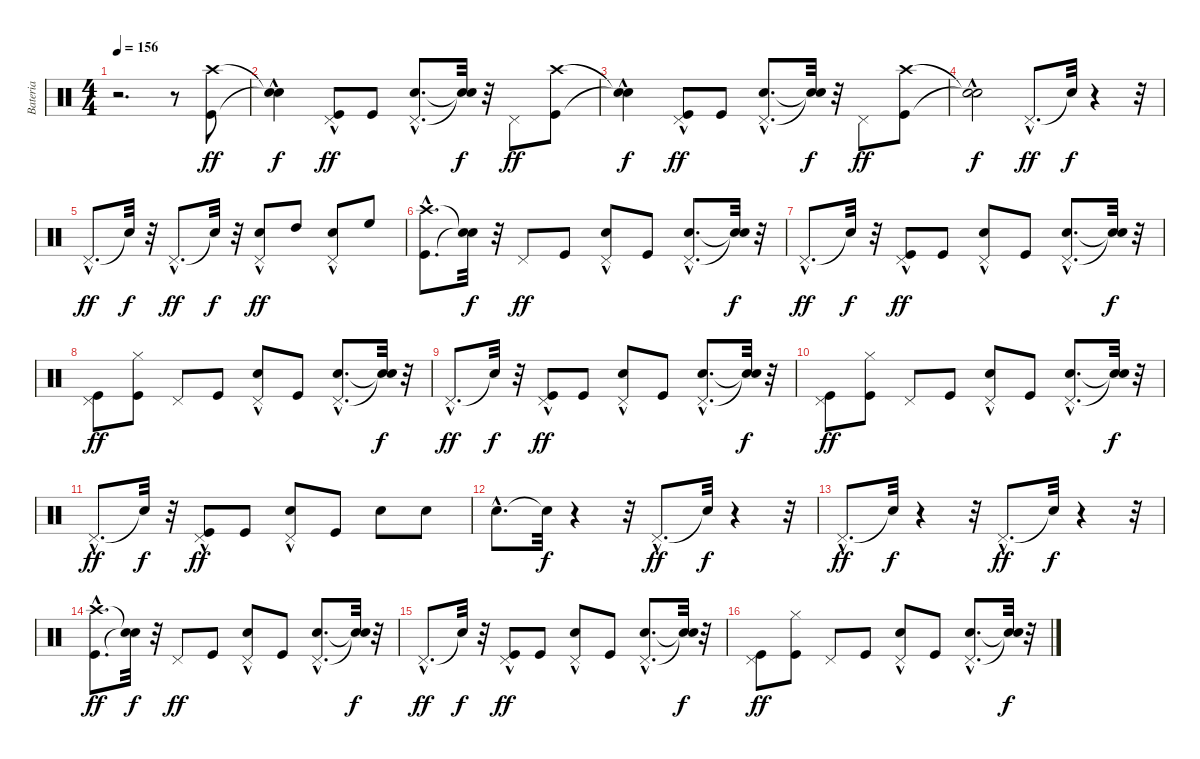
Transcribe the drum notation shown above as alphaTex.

\track ("Bateria" "Bateria") {instrument percussion}
\staff {score}
\articulation defaults
\ts (4 4)
\tempo 156
\clef neutral
\ks c
r.2{d dy ff} r.8 ("Kick (hit)" "Crash high (hit)").8 |
("Snare (hit)"{hac t} "Snare (hit)"{t}).4{dy f} ("Kick (hit)" "Pedal Hi-Hat (hit)"{hac}).8{dy ff} "Kick (hit)".8 ("Snare (hit) 2"{hac} "Pedal Hi-Hat (hit)"{hac}).8{d} ("Snare (hit)"{t} "Snare (hit)"{t}).32{dy f} r.32 "Pedal Hi-Hat (hit)".8{dy ff} ("Kick (hit)" "Crash high (hit)").8 |
("Snare (hit)"{hac t} "Snare (hit)"{t}).4{dy f} ("Kick (hit)" "Pedal Hi-Hat (hit)"{hac}).8{dy ff} "Kick (hit)".8 ("Snare (hit) 2"{hac} "Pedal Hi-Hat (hit)"{hac}).8{d} ("Snare (hit)"{t} "Snare (hit)"{t}).32{dy f} r.32 "Pedal Hi-Hat (hit)".8{dy ff} ("Kick (hit)" "Crash high (hit)").8 |
("Snare (hit)"{hac t} "Snare (hit)"{t}).2{dy f} "Pedal Hi-Hat (hit)"{hac}.8{d dy ff} "Snare (hit)"{t}.32{dy f} r.4 r.32 |
"Pedal Hi-Hat (hit)"{hac}.8{d dy ff} "Snare (hit)"{t}.32{dy f} r.32 "Pedal Hi-Hat (hit)"{hac}.8{d dy ff} "Snare (hit)"{t}.32{dy f} r.32 ("Snare (hit) 2" "Pedal Hi-Hat (hit)"{hac}).8{dy ff} "High Tom (hit)".8 ("Snare (hit) 2" "Pedal Hi-Hat (hit)"{hac}).8 "High Floor Tom (hit)".8 |
("Kick (hit)"{hac} "Crash high (hit)"{hac}).8{d} ("Snare (hit)"{t} "Snare (hit)"{t}).32{dy f} r.32 "Pedal Hi-Hat (hit)".8{dy ff} "Kick (hit)".8 ("Snare (hit) 2" "Pedal Hi-Hat (hit)"{hac}).8 "Kick (hit)".8 ("Snare (hit) 2"{hac} "Pedal Hi-Hat (hit)"{hac}).8{d} ("Snare (hit)"{t} "Snare (hit)"{t}).32{dy f} r.32 |
"Pedal Hi-Hat (hit)"{hac}.8{d dy ff} "Snare (hit)"{t}.32{dy f} r.32 ("Kick (hit)" "Pedal Hi-Hat (hit)"{hac}).8{dy ff} "Kick (hit)".8 ("Snare (hit) 2" "Pedal Hi-Hat (hit)"{hac}).8 "Kick (hit)".8 ("Snare (hit) 2"{hac} "Pedal Hi-Hat (hit)"{hac}).8{d} ("Snare (hit)"{t} "Snare (hit)"{t}).32{dy f} r.32 |
("Kick (hit)" "Pedal Hi-Hat (hit)").8{dy ff} ("Kick (hit)" "Hi-Hat (closed)").8 "Pedal Hi-Hat (hit)".8 "Kick (hit)".8 ("Snare (hit) 2" "Pedal Hi-Hat (hit)"{hac}).8 "Kick (hit)".8 ("Snare (hit) 2"{hac} "Pedal Hi-Hat (hit)"{hac}).8{d} ("Snare (hit)"{t} "Snare (hit)"{t}).32{dy f} r.32 |
"Pedal Hi-Hat (hit)"{hac}.8{d dy ff} "Snare (hit)"{t}.32{dy f} r.32 ("Kick (hit)" "Pedal Hi-Hat (hit)"{hac}).8{dy ff} "Kick (hit)".8 ("Snare (hit) 2" "Pedal Hi-Hat (hit)"{hac}).8 "Kick (hit)".8 ("Snare (hit) 2"{hac} "Pedal Hi-Hat (hit)"{hac}).8{d} ("Snare (hit)"{t} "Snare (hit)"{t}).32{dy f} r.32 |
("Kick (hit)" "Pedal Hi-Hat (hit)").8{dy ff} ("Kick (hit)" "Hi-Hat (closed)").8 "Pedal Hi-Hat (hit)".8 "Kick (hit)".8 ("Snare (hit) 2" "Pedal Hi-Hat (hit)"{hac}).8 "Kick (hit)".8 ("Snare (hit) 2"{hac} "Pedal Hi-Hat (hit)"{hac}).8{d} ("Snare (hit)"{t} "Snare (hit)"{t}).32{dy f} r.32 |
"Pedal Hi-Hat (hit)"{hac}.8{d dy ff} "Snare (hit)"{t}.32{dy f} r.32 ("Kick (hit)" "Pedal Hi-Hat (hit)"{hac}).8{dy ff} "Kick (hit)".8 ("Snare (hit) 2" "Pedal Hi-Hat (hit)"{hac}).8 "Kick (hit)".8 "Snare (hit) 2".8 "Snare (hit) 2".8 |
"Snare (hit) 2"{hac}.8{d} "Snare (hit)"{t}.32{dy f} r.4 r.32 "Pedal Hi-Hat (hit)"{hac}.8{d dy ff} "Snare (hit)"{t}.32{dy f} r.4 r.32 |
"Pedal Hi-Hat (hit)"{hac}.8{d dy ff} "Snare (hit)"{t}.32{dy f} r.4 r.32 "Pedal Hi-Hat (hit)"{hac}.8{d dy ff} "Snare (hit)"{t}.32{dy f} r.4 r.32 |
("Kick (hit)"{hac} "Crash high (hit)"{hac}).8{d dy ff} ("Snare (hit)"{t} "Snare (hit)"{t}).32{dy f} r.32 "Pedal Hi-Hat (hit)".8{dy ff} "Kick (hit)".8 ("Snare (hit) 2" "Pedal Hi-Hat (hit)"{hac}).8 "Kick (hit)".8 ("Snare (hit) 2"{hac} "Pedal Hi-Hat (hit)"{hac}).8{d} ("Snare (hit)"{t} "Snare (hit)"{t}).32{dy f} r.32 |
"Pedal Hi-Hat (hit)"{hac}.8{d dy ff} "Snare (hit)"{t}.32{dy f} r.32 ("Kick (hit)" "Pedal Hi-Hat (hit)"{hac}).8{dy ff} "Kick (hit)".8 ("Snare (hit) 2" "Pedal Hi-Hat (hit)"{hac}).8 "Kick (hit)".8 ("Snare (hit) 2"{hac} "Pedal Hi-Hat (hit)"{hac}).8{d} ("Snare (hit)"{t} "Snare (hit)"{t}).32{dy f} r.32 |
("Kick (hit)" "Pedal Hi-Hat (hit)").8{dy ff} ("Kick (hit)" "Hi-Hat (closed)").8 "Pedal Hi-Hat (hit)".8 "Kick (hit)".8 ("Snare (hit) 2" "Pedal Hi-Hat (hit)"{hac}).8 "Kick (hit)".8 ("Snare (hit) 2"{hac} "Pedal Hi-Hat (hit)"{hac}).8{d} ("Snare (hit)"{t} "Snare (hit)"{t}).32{dy f} r.32
